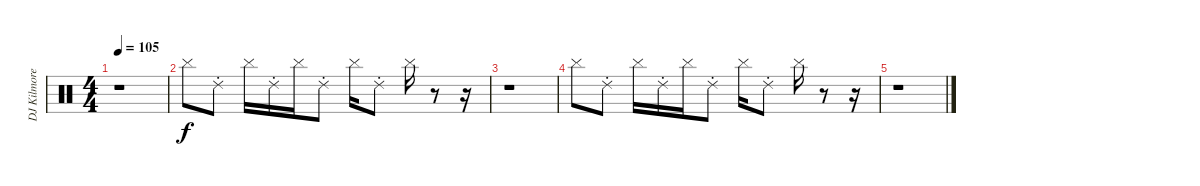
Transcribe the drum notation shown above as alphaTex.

\track ("DJ Kilmore" "DJ Kilmore") {instrument percussion}
\staff {score}
\articulation defaults
\ts (4 4)
\tempo 105
\clef neutral
\ks c
r.1{dy f} |
"Cymbal (hit)".8 "Ride (choke) 2".8 "Cymbal (hit)".16 "Ride (choke) 2".16 "Cymbal (hit)".16 "Ride (choke) 2".8 "Cymbal (hit)".16 "Ride (choke) 2".8 "Cymbal (hit)".16 r.8 r.16 |
r.1 |
"Cymbal (hit)".8 "Ride (choke) 2".8 "Cymbal (hit)".16 "Ride (choke) 2".16 "Cymbal (hit)".16 "Ride (choke) 2".8 "Cymbal (hit)".16 "Ride (choke) 2".8 "Cymbal (hit)".16 r.8 r.16 |
r.1
